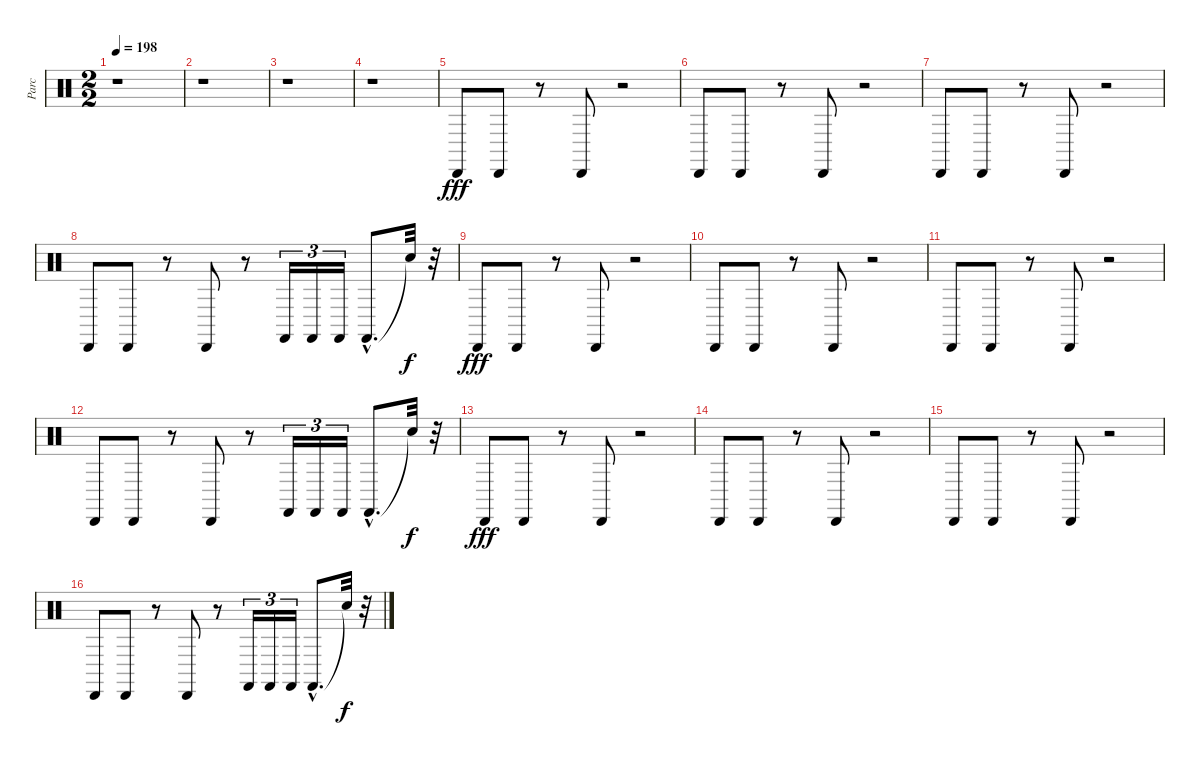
\track ("Parc" "Parc") {instrument percussion}
\staff {score}
\articulation defaults
\ts (2 2)
\tempo 198
\clef neutral
\ks c
r.1{dy fff} |
r.1 |
r.1 |
r.1 |
"Cabasa (hit)".8 "Cabasa (hit)".8 r.8 "Cabasa (hit)".8 r.2 |
"Cabasa (hit)".8 "Cabasa (hit)".8 r.8 "Cabasa (hit)".8 r.2 |
"Cabasa (hit)".8 "Cabasa (hit)".8 r.8 "Cabasa (hit)".8 r.2 |
"Cabasa (hit)".8 "Cabasa (hit)".8 r.8 "Cabasa (hit)".8 r.8 "Castanets (hit)".16{tu (3 2)} "Castanets (hit)".16{tu (3 2)} "Castanets (hit)".16{tu (3 2)} "Castanets (hit)"{hac}.8{d} "Snare (hit)"{t}.32{dy f} r.32 |
"Cabasa (hit)".8{dy fff} "Cabasa (hit)".8 r.8 "Cabasa (hit)".8 r.2 |
"Cabasa (hit)".8 "Cabasa (hit)".8 r.8 "Cabasa (hit)".8 r.2 |
"Cabasa (hit)".8 "Cabasa (hit)".8 r.8 "Cabasa (hit)".8 r.2 |
"Cabasa (hit)".8 "Cabasa (hit)".8 r.8 "Cabasa (hit)".8 r.8 "Castanets (hit)".16{tu (3 2)} "Castanets (hit)".16{tu (3 2)} "Castanets (hit)".16{tu (3 2)} "Castanets (hit)"{hac}.8{d} "Snare (hit)"{t}.32{dy f} r.32 |
"Cabasa (hit)".8{dy fff} "Cabasa (hit)".8 r.8 "Cabasa (hit)".8 r.2 |
"Cabasa (hit)".8 "Cabasa (hit)".8 r.8 "Cabasa (hit)".8 r.2 |
"Cabasa (hit)".8 "Cabasa (hit)".8 r.8 "Cabasa (hit)".8 r.2 |
"Cabasa (hit)".8 "Cabasa (hit)".8 r.8 "Cabasa (hit)".8 r.8 "Castanets (hit)".16{tu (3 2)} "Castanets (hit)".16{tu (3 2)} "Castanets (hit)".16{tu (3 2)} "Castanets (hit)"{hac}.8{d} "Snare (hit)"{t}.32{dy f} r.32
